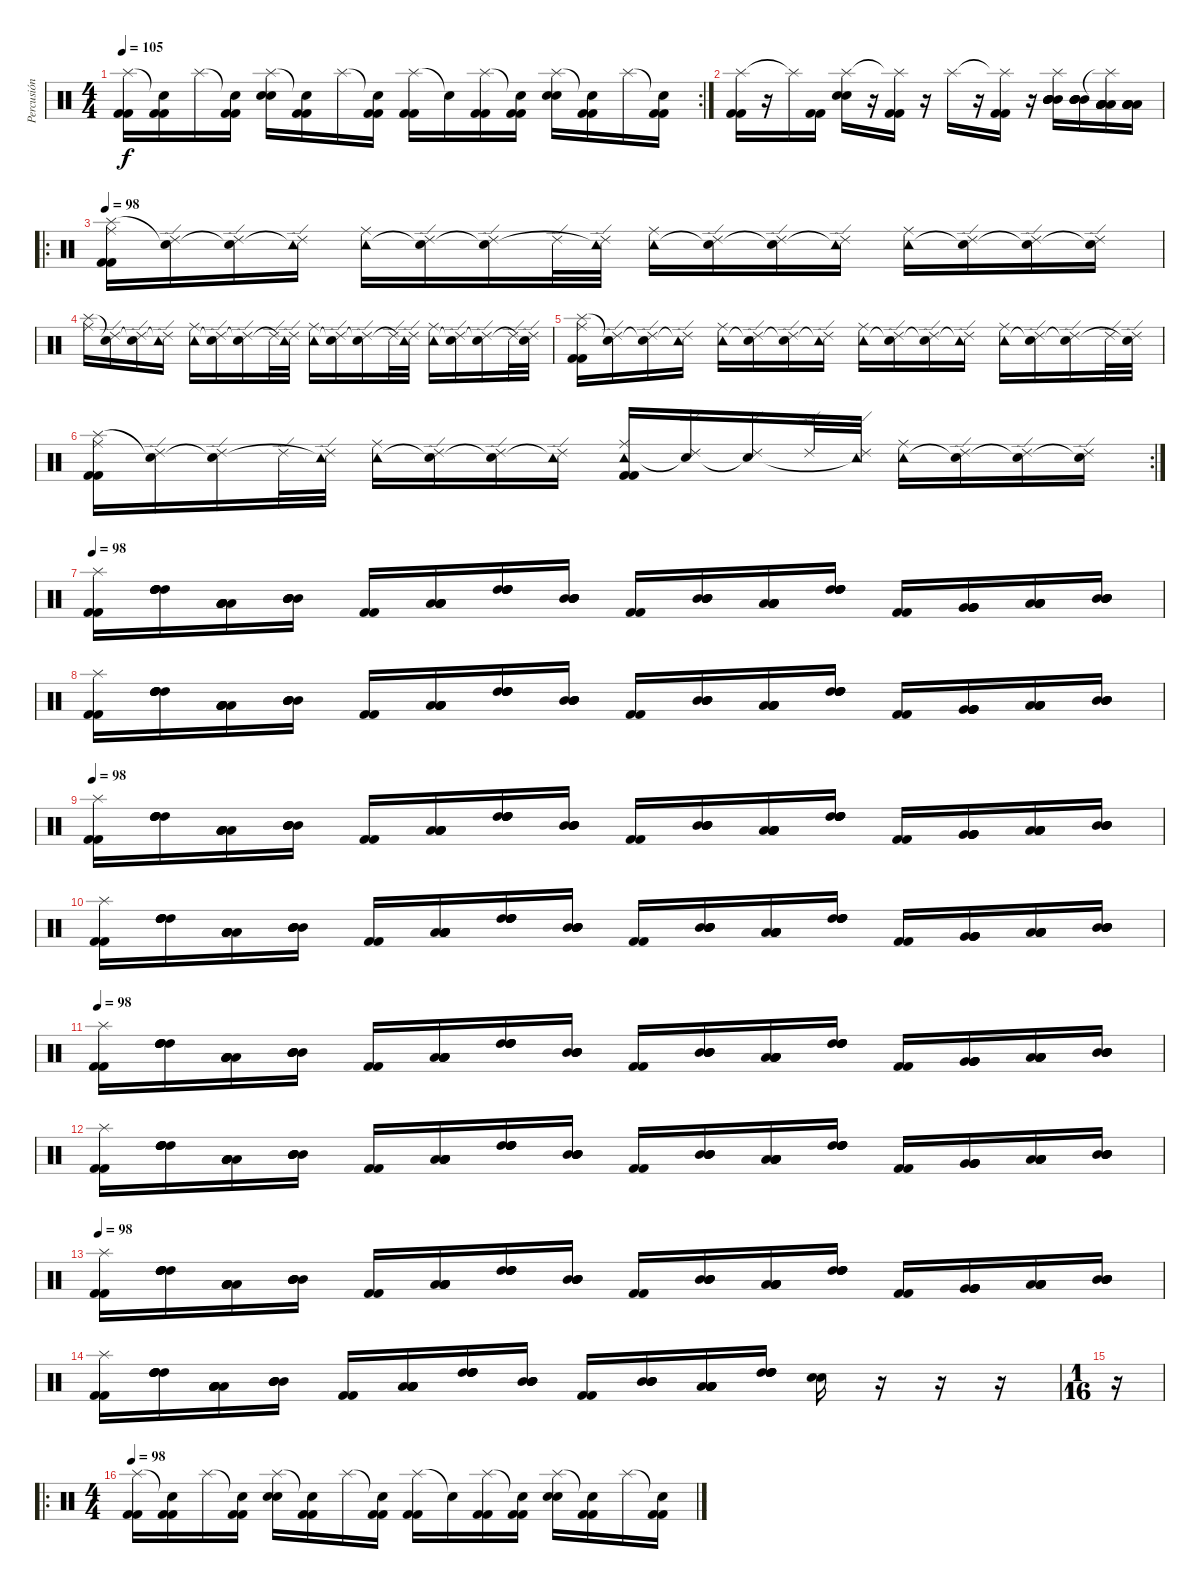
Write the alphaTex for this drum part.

\track ("Percusión" "Percusión") {instrument percussion}
\staff {score}
\articulation defaults
\rc 2
\ts (4 4)
\tempo 105
\clef neutral
\ks c
("Splash (hit)" "Kick (hit) 2" "Kick (hit) 2").16{dy f} ("Snare (hit)"{t} "Kick (hit) 2" "Kick (hit) 2").16 "Splash (hit)".16 ("Snare (hit)"{t} "Kick (hit) 2" "Kick (hit) 2").16 ("Splash (hit)" "Electric Snare (hit)" "Electric Snare (hit)").16 ("Snare (hit)"{t} "Kick (hit) 2" "Kick (hit) 2").16 "Splash (hit)".16 ("Snare (hit)"{t} "Kick (hit) 2" "Kick (hit) 2").16 ("Splash (hit)" "Kick (hit) 2" "Kick (hit) 2").16 "Snare (hit)"{t}.16 ("Splash (hit)" "Kick (hit) 2" "Kick (hit) 2").16 ("Snare (hit)"{t} "Kick (hit) 2" "Kick (hit) 2").16 ("Splash (hit)" "Electric Snare (hit)" "Electric Snare (hit)").16 ("Snare (hit)"{t} "Kick (hit) 2" "Kick (hit) 2").16 "Splash (hit)".16 ("Snare (hit)"{t} "Kick (hit) 2" "Kick (hit) 2").16 |
("Splash (hit)" "Kick (hit) 2" "Kick (hit) 2").16 r.16 "Splash (hit)"{t}.16 ("Kick (hit) 2" "Kick (hit) 2").16 ("Splash (hit)" "Electric Snare (hit)" "Electric Snare (hit)").16 r.16 ("Splash (hit)"{t} "Kick (hit) 2" "Kick (hit) 2").16 r.16 "Splash (hit)".16 r.16 ("Splash (hit)"{t} "Kick (hit) 2" "Kick (hit) 2").16 r.16 ("Splash (hit)" "Mid Tom (hit)" "Mid Tom (hit)" "Mid Tom (hit)" "Mid Tom (hit)" "Mid Tom (hit)").16 ("Mid Tom (hit)" "Mid Tom (hit)" "Mid Tom (hit)" "Mid Tom (hit)" "Mid Tom (hit)").16 ("Splash (hit)"{t} "Low Tom (hit)" "Low Tom (hit)" "Low Tom (hit)" "Low Tom (hit)" "Low Tom (hit)").16 ("Low Tom (hit)" "Low Tom (hit)" "Low Tom (hit)" "Low Tom (hit)" "Low Tom (hit)").16 |
\ro
\tempo 98
("Ride (middle)" "Splash (hit)" "Kick (hit) 2" "Kick (hit) 2").16 ("Ride (edge) 2" "Snare (hit)"{t}).16 ("Ride (edge) 2" "Snare (hit)"{t}).16 ("Ride (edge) 2" "Tambourine (hit)"{t}).16 ("Ride (middle)" "Tambourine (hit)").16 ("Ride (edge) 2" "Snare (hit)"{t}).16 ("Ride (edge) 2" "Snare (hit)"{t}).16 "Ride (edge) 2".32 ("Ride (edge) 2" "Tambourine (hit)"{t}).32 ("Ride (middle)" "Tambourine (hit)").16 ("Ride (edge) 2" "Snare (hit)"{t}).16 ("Ride (edge) 2" "Snare (hit)"{t}).16 ("Ride (edge) 2" "Tambourine (hit)"{t}).16 ("Ride (middle)" "Tambourine (hit)").16 ("Ride (edge) 2" "Snare (hit)"{t}).16 ("Ride (edge) 2" "Snare (hit)"{t}).16 ("Ride (edge) 2" "Snare (hit)"{t}).16 |
("Ride (middle)" "Splash (hit)").16 ("Ride (edge) 2" "Snare (hit)"{t}).16 ("Ride (edge) 2" "Snare (hit)"{t}).16 ("Ride (edge) 2" "Tambourine (hit)"{t}).16 ("Ride (middle)" "Tambourine (hit)").16 ("Ride (edge) 2" "Snare (hit)"{t}).16 ("Ride (edge) 2" "Snare (hit)"{t}).16 "Ride (edge) 2".32 ("Ride (edge) 2" "Tambourine (hit)"{t}).32 ("Ride (middle)" "Tambourine (hit)").16 ("Ride (edge) 2" "Snare (hit)"{t}).16 ("Ride (edge) 2" "Snare (hit)"{t}).16 "Ride (edge) 2".32 ("Ride (edge) 2" "Tambourine (hit)"{t}).32 ("Ride (middle)" "Tambourine (hit)").16 ("Ride (edge) 2" "Snare (hit)"{t}).16 ("Ride (edge) 2" "Snare (hit)"{t}).16 "Ride (edge) 2".32 ("Ride (edge) 2" "Snare (hit)"{t}).32 |
("Ride (middle)" "Splash (hit)" "Kick (hit) 2" "Kick (hit) 2").16 ("Ride (edge) 2" "Snare (hit)"{t}).16 ("Ride (edge) 2" "Snare (hit)"{t}).16 ("Ride (edge) 2" "Tambourine (hit)"{t}).16 ("Ride (middle)" "Tambourine (hit)").16 ("Ride (edge) 2" "Snare (hit)"{t}).16 ("Ride (edge) 2" "Snare (hit)"{t}).16 ("Ride (edge) 2" "Tambourine (hit)"{t}).16 ("Ride (middle)" "Tambourine (hit)").16 ("Ride (edge) 2" "Snare (hit)"{t}).16 ("Ride (edge) 2" "Snare (hit)"{t}).16 ("Ride (edge) 2" "Tambourine (hit)"{t}).16 ("Ride (middle)" "Tambourine (hit)").16 ("Ride (edge) 2" "Snare (hit)"{t}).16 ("Ride (edge) 2" "Snare (hit)"{t}).16 "Ride (edge) 2".32 ("Ride (edge) 2" "Snare (hit)"{t}).32 |
\rc 2
("Ride (middle)" "Splash (hit)" "Kick (hit) 2" "Kick (hit) 2").16 ("Ride (edge) 2" "Snare (hit)"{t}).16 ("Ride (edge) 2" "Snare (hit)"{t}).16 "Ride (edge) 2".32 ("Ride (edge) 2" "Tambourine (hit)"{t}).32 ("Ride (middle)" "Tambourine (hit)").16 ("Ride (edge) 2" "Snare (hit)"{t}).16 ("Ride (edge) 2" "Snare (hit)"{t}).16 ("Ride (edge) 2" "Tambourine (hit)"{t}).16 ("Ride (middle)" "Tambourine (hit)" "Kick (hit) 2" "Kick (hit) 2").16 ("Ride (edge) 2" "Snare (hit)"{t}).16 ("Ride (edge) 2" "Snare (hit)"{t}).16 "Ride (edge) 2".32 ("Ride (edge) 2" "Tambourine (hit)"{t}).32 ("Ride (middle)" "Tambourine (hit)").16 ("Ride (edge) 2" "Snare (hit)"{t}).16 ("Ride (edge) 2" "Snare (hit)"{t}).16 ("Ride (edge) 2" "Snare (hit)"{t}).16 |
\tempo 98
("Splash (hit)" "Kick (hit) 2" "Kick (hit) 2").16 ("High Tom (hit)" "High Tom (hit)" "High Tom (hit)" "High Tom (hit)" "High Tom (hit)").16 ("Low Tom (hit)" "Low Tom (hit)" "Low Tom (hit)" "Low Tom (hit)" "Low Tom (hit)").16 ("Mid Tom (hit)" "Mid Tom (hit)" "Mid Tom (hit)" "Mid Tom (hit)" "Mid Tom (hit)").16 ("Kick (hit) 2" "Kick (hit) 2").16 ("Low Tom (hit)" "Low Tom (hit)" "Low Tom (hit)" "Low Tom (hit)" "Low Tom (hit)").16 ("High Tom (hit)" "High Tom (hit)" "High Tom (hit)" "High Tom (hit)" "High Tom (hit)").16 ("Mid Tom (hit)" "Mid Tom (hit)" "Mid Tom (hit)" "Mid Tom (hit)" "Mid Tom (hit)").16 ("Kick (hit) 2" "Kick (hit) 2").16 ("Mid Tom (hit)" "Mid Tom (hit)" "Mid Tom (hit)" "Mid Tom (hit)" "Mid Tom (hit)").16 ("Low Floor Tom (hit)" "Low Floor Tom (hit)" "Low Floor Tom (hit)" "Low Floor Tom (hit)" "Low Floor Tom (hit)").16 ("High Tom (hit)" "High Tom (hit)" "High Tom (hit)" "High Tom (hit)" "High Tom (hit)").16 ("Kick (hit) 2" "Kick (hit) 2").16 ("Very Low Tom (hit)" "Very Low Tom (hit)" "Very Low Tom (hit)" "Very Low Tom (hit)" "Very Low Tom (hit)").16 ("Low Tom (hit)" "Low Tom (hit)" "Low Tom (hit)" "Low Tom (hit)" "Low Tom (hit)").16 ("Mid Tom (hit)" "Mid Tom (hit)" "Mid Tom (hit)" "Mid Tom (hit)" "Mid Tom (hit)").16 |
("Splash (hit)" "Kick (hit) 2" "Kick (hit) 2").16 ("High Tom (hit)" "High Tom (hit)" "High Tom (hit)" "High Tom (hit)" "High Tom (hit)").16 ("Low Tom (hit)" "Low Tom (hit)" "Low Tom (hit)" "Low Tom (hit)" "Low Tom (hit)").16 ("Mid Tom (hit)" "Mid Tom (hit)" "Mid Tom (hit)" "Mid Tom (hit)" "Mid Tom (hit)").16 ("Kick (hit) 2" "Kick (hit) 2").16 ("Low Tom (hit)" "Low Tom (hit)" "Low Tom (hit)" "Low Tom (hit)" "Low Tom (hit)").16 ("High Tom (hit)" "High Tom (hit)" "High Tom (hit)" "High Tom (hit)" "High Tom (hit)").16 ("Mid Tom (hit)" "Mid Tom (hit)" "Mid Tom (hit)" "Mid Tom (hit)" "Mid Tom (hit)").16 ("Kick (hit) 2" "Kick (hit) 2").16 ("Mid Tom (hit)" "Mid Tom (hit)" "Mid Tom (hit)" "Mid Tom (hit)" "Mid Tom (hit)").16 ("Low Floor Tom (hit)" "Low Floor Tom (hit)" "Low Floor Tom (hit)" "Low Floor Tom (hit)" "Low Floor Tom (hit)").16 ("High Tom (hit)" "High Tom (hit)" "High Tom (hit)" "High Tom (hit)" "High Tom (hit)").16 ("Kick (hit) 2" "Kick (hit) 2").16 ("Very Low Tom (hit)" "Very Low Tom (hit)" "Very Low Tom (hit)" "Very Low Tom (hit)" "Very Low Tom (hit)").16 ("Low Tom (hit)" "Low Tom (hit)" "Low Tom (hit)" "Low Tom (hit)" "Low Tom (hit)").16 ("Mid Tom (hit)" "Mid Tom (hit)" "Mid Tom (hit)" "Mid Tom (hit)" "Mid Tom (hit)").16 |
\tempo 98
("Splash (hit)" "Kick (hit) 2" "Kick (hit) 2").16 ("High Tom (hit)" "High Tom (hit)" "High Tom (hit)" "High Tom (hit)" "High Tom (hit)").16 ("Low Tom (hit)" "Low Tom (hit)" "Low Tom (hit)" "Low Tom (hit)" "Low Tom (hit)").16 ("Mid Tom (hit)" "Mid Tom (hit)" "Mid Tom (hit)" "Mid Tom (hit)" "Mid Tom (hit)").16 ("Kick (hit) 2" "Kick (hit) 2").16 ("Low Tom (hit)" "Low Tom (hit)" "Low Tom (hit)" "Low Tom (hit)" "Low Tom (hit)").16 ("High Tom (hit)" "High Tom (hit)" "High Tom (hit)" "High Tom (hit)" "High Tom (hit)").16 ("Mid Tom (hit)" "Mid Tom (hit)" "Mid Tom (hit)" "Mid Tom (hit)" "Mid Tom (hit)").16 ("Kick (hit) 2" "Kick (hit) 2").16 ("Mid Tom (hit)" "Mid Tom (hit)" "Mid Tom (hit)" "Mid Tom (hit)" "Mid Tom (hit)").16 ("Low Floor Tom (hit)" "Low Floor Tom (hit)" "Low Floor Tom (hit)" "Low Floor Tom (hit)" "Low Floor Tom (hit)").16 ("High Tom (hit)" "High Tom (hit)" "High Tom (hit)" "High Tom (hit)" "High Tom (hit)").16 ("Kick (hit) 2" "Kick (hit) 2").16 ("Very Low Tom (hit)" "Very Low Tom (hit)" "Very Low Tom (hit)" "Very Low Tom (hit)" "Very Low Tom (hit)").16 ("Low Tom (hit)" "Low Tom (hit)" "Low Tom (hit)" "Low Tom (hit)" "Low Tom (hit)").16 ("Mid Tom (hit)" "Mid Tom (hit)" "Mid Tom (hit)" "Mid Tom (hit)" "Mid Tom (hit)").16 |
("Splash (hit)" "Kick (hit) 2" "Kick (hit) 2").16 ("High Tom (hit)" "High Tom (hit)" "High Tom (hit)" "High Tom (hit)" "High Tom (hit)").16 ("Low Tom (hit)" "Low Tom (hit)" "Low Tom (hit)" "Low Tom (hit)" "Low Tom (hit)").16 ("Mid Tom (hit)" "Mid Tom (hit)" "Mid Tom (hit)" "Mid Tom (hit)" "Mid Tom (hit)").16 ("Kick (hit) 2" "Kick (hit) 2").16 ("Low Tom (hit)" "Low Tom (hit)" "Low Tom (hit)" "Low Tom (hit)" "Low Tom (hit)").16 ("High Tom (hit)" "High Tom (hit)" "High Tom (hit)" "High Tom (hit)" "High Tom (hit)").16 ("Mid Tom (hit)" "Mid Tom (hit)" "Mid Tom (hit)" "Mid Tom (hit)" "Mid Tom (hit)").16 ("Kick (hit) 2" "Kick (hit) 2").16 ("Mid Tom (hit)" "Mid Tom (hit)" "Mid Tom (hit)" "Mid Tom (hit)" "Mid Tom (hit)").16 ("Low Floor Tom (hit)" "Low Floor Tom (hit)" "Low Floor Tom (hit)" "Low Floor Tom (hit)" "Low Floor Tom (hit)").16 ("High Tom (hit)" "High Tom (hit)" "High Tom (hit)" "High Tom (hit)" "High Tom (hit)").16 ("Kick (hit) 2" "Kick (hit) 2").16 ("Very Low Tom (hit)" "Very Low Tom (hit)" "Very Low Tom (hit)" "Very Low Tom (hit)" "Very Low Tom (hit)").16 ("Low Tom (hit)" "Low Tom (hit)" "Low Tom (hit)" "Low Tom (hit)" "Low Tom (hit)").16 ("Mid Tom (hit)" "Mid Tom (hit)" "Mid Tom (hit)" "Mid Tom (hit)" "Mid Tom (hit)").16 |
\tempo 98
("Splash (hit)" "Kick (hit) 2" "Kick (hit) 2").16 ("High Tom (hit)" "High Tom (hit)" "High Tom (hit)" "High Tom (hit)" "High Tom (hit)").16 ("Low Tom (hit)" "Low Tom (hit)" "Low Tom (hit)" "Low Tom (hit)" "Low Tom (hit)").16 ("Mid Tom (hit)" "Mid Tom (hit)" "Mid Tom (hit)" "Mid Tom (hit)" "Mid Tom (hit)").16 ("Kick (hit) 2" "Kick (hit) 2").16 ("Low Tom (hit)" "Low Tom (hit)" "Low Tom (hit)" "Low Tom (hit)" "Low Tom (hit)").16 ("High Tom (hit)" "High Tom (hit)" "High Tom (hit)" "High Tom (hit)" "High Tom (hit)").16 ("Mid Tom (hit)" "Mid Tom (hit)" "Mid Tom (hit)" "Mid Tom (hit)" "Mid Tom (hit)").16 ("Kick (hit) 2" "Kick (hit) 2").16 ("Mid Tom (hit)" "Mid Tom (hit)" "Mid Tom (hit)" "Mid Tom (hit)" "Mid Tom (hit)").16 ("Low Floor Tom (hit)" "Low Floor Tom (hit)" "Low Floor Tom (hit)" "Low Floor Tom (hit)" "Low Floor Tom (hit)").16 ("High Tom (hit)" "High Tom (hit)" "High Tom (hit)" "High Tom (hit)" "High Tom (hit)").16 ("Kick (hit) 2" "Kick (hit) 2").16 ("Very Low Tom (hit)" "Very Low Tom (hit)" "Very Low Tom (hit)" "Very Low Tom (hit)" "Very Low Tom (hit)").16 ("Low Tom (hit)" "Low Tom (hit)" "Low Tom (hit)" "Low Tom (hit)" "Low Tom (hit)").16 ("Mid Tom (hit)" "Mid Tom (hit)" "Mid Tom (hit)" "Mid Tom (hit)" "Mid Tom (hit)").16 |
("Splash (hit)" "Kick (hit) 2" "Kick (hit) 2").16 ("High Tom (hit)" "High Tom (hit)" "High Tom (hit)" "High Tom (hit)" "High Tom (hit)").16 ("Low Tom (hit)" "Low Tom (hit)" "Low Tom (hit)" "Low Tom (hit)" "Low Tom (hit)").16 ("Mid Tom (hit)" "Mid Tom (hit)" "Mid Tom (hit)" "Mid Tom (hit)" "Mid Tom (hit)").16 ("Kick (hit) 2" "Kick (hit) 2").16 ("Low Tom (hit)" "Low Tom (hit)" "Low Tom (hit)" "Low Tom (hit)" "Low Tom (hit)").16 ("High Tom (hit)" "High Tom (hit)" "High Tom (hit)" "High Tom (hit)" "High Tom (hit)").16 ("Mid Tom (hit)" "Mid Tom (hit)" "Mid Tom (hit)" "Mid Tom (hit)" "Mid Tom (hit)").16 ("Kick (hit) 2" "Kick (hit) 2").16 ("Mid Tom (hit)" "Mid Tom (hit)" "Mid Tom (hit)" "Mid Tom (hit)" "Mid Tom (hit)").16 ("Low Floor Tom (hit)" "Low Floor Tom (hit)" "Low Floor Tom (hit)" "Low Floor Tom (hit)" "Low Floor Tom (hit)").16 ("High Tom (hit)" "High Tom (hit)" "High Tom (hit)" "High Tom (hit)" "High Tom (hit)").16 ("Kick (hit) 2" "Kick (hit) 2").16 ("Very Low Tom (hit)" "Very Low Tom (hit)" "Very Low Tom (hit)" "Very Low Tom (hit)" "Very Low Tom (hit)").16 ("Low Tom (hit)" "Low Tom (hit)" "Low Tom (hit)" "Low Tom (hit)" "Low Tom (hit)").16 ("Mid Tom (hit)" "Mid Tom (hit)" "Mid Tom (hit)" "Mid Tom (hit)" "Mid Tom (hit)").16 |
\tempo 98
("Splash (hit)" "Kick (hit) 2" "Kick (hit) 2").16 ("High Tom (hit)" "High Tom (hit)" "High Tom (hit)" "High Tom (hit)" "High Tom (hit)").16 ("Low Tom (hit)" "Low Tom (hit)" "Low Tom (hit)" "Low Tom (hit)" "Low Tom (hit)").16 ("Mid Tom (hit)" "Mid Tom (hit)" "Mid Tom (hit)" "Mid Tom (hit)" "Mid Tom (hit)").16 ("Kick (hit) 2" "Kick (hit) 2").16 ("Low Tom (hit)" "Low Tom (hit)" "Low Tom (hit)" "Low Tom (hit)" "Low Tom (hit)").16 ("High Tom (hit)" "High Tom (hit)" "High Tom (hit)" "High Tom (hit)" "High Tom (hit)").16 ("Mid Tom (hit)" "Mid Tom (hit)" "Mid Tom (hit)" "Mid Tom (hit)" "Mid Tom (hit)").16 ("Kick (hit) 2" "Kick (hit) 2").16 ("Mid Tom (hit)" "Mid Tom (hit)" "Mid Tom (hit)" "Mid Tom (hit)" "Mid Tom (hit)").16 ("Low Floor Tom (hit)" "Low Floor Tom (hit)" "Low Floor Tom (hit)" "Low Floor Tom (hit)" "Low Floor Tom (hit)").16 ("High Tom (hit)" "High Tom (hit)" "High Tom (hit)" "High Tom (hit)" "High Tom (hit)").16 ("Kick (hit) 2" "Kick (hit) 2").16 ("Very Low Tom (hit)" "Very Low Tom (hit)" "Very Low Tom (hit)" "Very Low Tom (hit)" "Very Low Tom (hit)").16 ("Low Tom (hit)" "Low Tom (hit)" "Low Tom (hit)" "Low Tom (hit)" "Low Tom (hit)").16 ("Mid Tom (hit)" "Mid Tom (hit)" "Mid Tom (hit)" "Mid Tom (hit)" "Mid Tom (hit)").16 |
("Splash (hit)" "Kick (hit) 2" "Kick (hit) 2").16 ("High Tom (hit)" "High Tom (hit)" "High Tom (hit)" "High Tom (hit)" "High Tom (hit)").16 ("Low Tom (hit)" "Low Tom (hit)" "Low Tom (hit)" "Low Tom (hit)" "Low Tom (hit)").16 ("Mid Tom (hit)" "Mid Tom (hit)" "Mid Tom (hit)" "Mid Tom (hit)" "Mid Tom (hit)").16 ("Kick (hit) 2" "Kick (hit) 2").16 ("Low Tom (hit)" "Low Tom (hit)" "Low Tom (hit)" "Low Tom (hit)" "Low Tom (hit)").16 ("High Tom (hit)" "High Tom (hit)" "High Tom (hit)" "High Tom (hit)" "High Tom (hit)").16 ("Mid Tom (hit)" "Mid Tom (hit)" "Mid Tom (hit)" "Mid Tom (hit)" "Mid Tom (hit)").16 ("Kick (hit) 2" "Kick (hit) 2").16 ("Mid Tom (hit)" "Mid Tom (hit)" "Mid Tom (hit)" "Mid Tom (hit)" "Mid Tom (hit)").16 ("Low Floor Tom (hit)" "Low Floor Tom (hit)" "Low Floor Tom (hit)" "Low Floor Tom (hit)" "Low Floor Tom (hit)").16 ("High Tom (hit)" "High Tom (hit)" "High Tom (hit)" "High Tom (hit)" "High Tom (hit)").16 ("Electric Snare (hit)" "Electric Snare (hit)").16 r.16 r.16 r.16 |
\ts (1 16)
r.16 |
\ro
\ts (4 4)
\tempo 98
("Splash (hit)" "Kick (hit) 2" "Kick (hit) 2").16 ("Snare (hit)"{t} "Kick (hit) 2" "Kick (hit) 2").16 "Splash (hit)".16 ("Snare (hit)"{t} "Kick (hit) 2" "Kick (hit) 2").16 ("Splash (hit)" "Electric Snare (hit)" "Electric Snare (hit)").16 ("Snare (hit)"{t} "Kick (hit) 2" "Kick (hit) 2").16 "Splash (hit)".16 ("Snare (hit)"{t} "Kick (hit) 2" "Kick (hit) 2").16 ("Splash (hit)" "Kick (hit) 2" "Kick (hit) 2").16 "Snare (hit)"{t}.16 ("Splash (hit)" "Kick (hit) 2" "Kick (hit) 2").16 ("Snare (hit)"{t} "Kick (hit) 2" "Kick (hit) 2").16 ("Splash (hit)" "Electric Snare (hit)" "Electric Snare (hit)").16 ("Snare (hit)"{t} "Kick (hit) 2" "Kick (hit) 2").16 "Splash (hit)".16 ("Snare (hit)"{t} "Kick (hit) 2" "Kick (hit) 2").16
